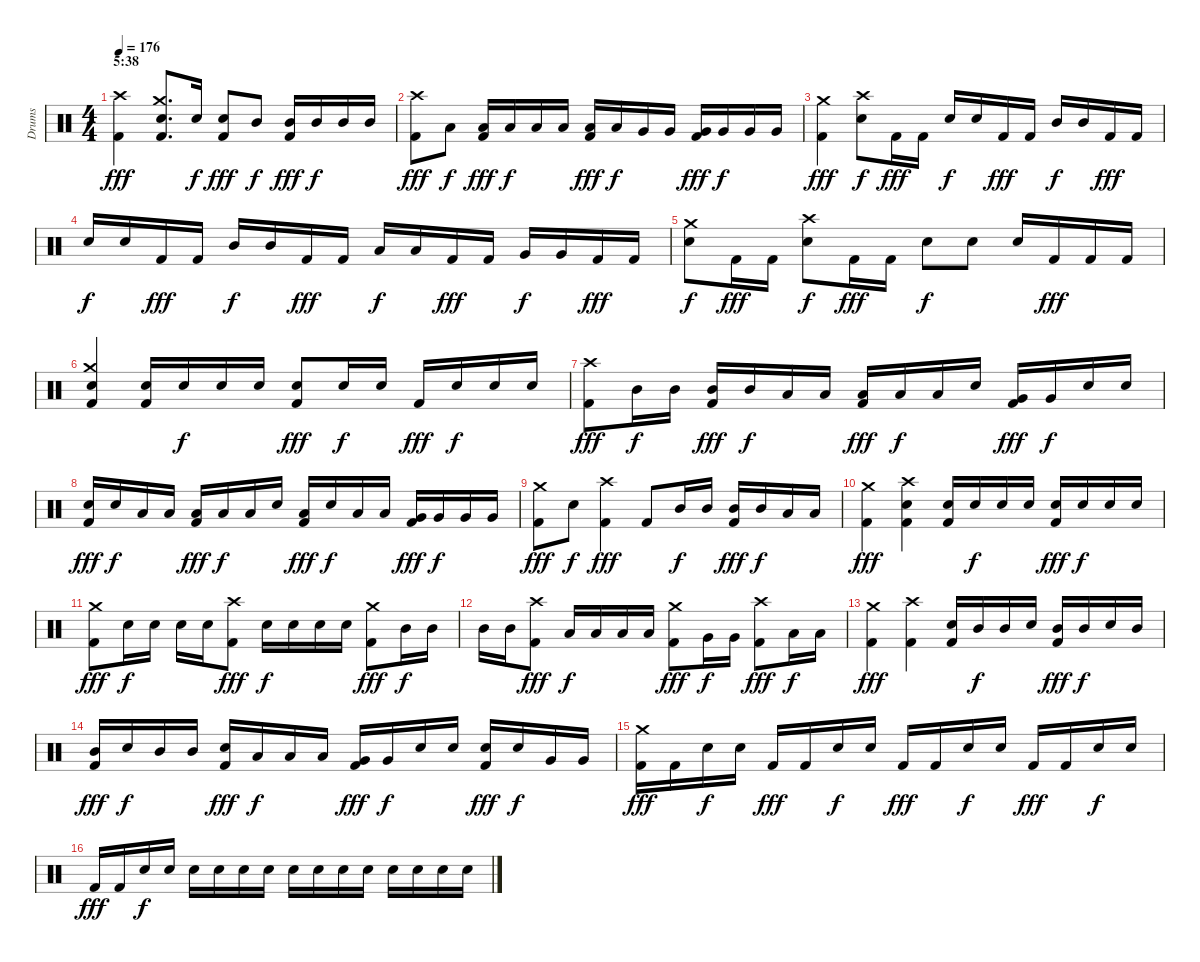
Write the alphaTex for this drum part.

\track ("Drums" "Drums") {instrument percussion}
\staff {score}
\articulation defaults
\ts (4 4)
\section ("" "5:38")
\tempo 176
\clef neutral
\ks c
("Crash high (hit)" "Kick (hit) 2").4{dy fff} ("Crash medium (hit)" "Snare (hit) 2" "Kick (hit) 2").8{d} "Snare (hit) 2".16{dy f} ("Snare (hit) 2" "Kick (hit) 2").8{dy fff} "Mid Tom (hit)".8{dy f} ("Mid Tom (hit)" "Kick (hit) 2").16{dy fff} "Mid Tom (hit)".16{dy f} "Mid Tom (hit)".16 "Mid Tom (hit)".16 |
("Crash high (hit)" "Kick (hit) 2").8{dy fff} "Low Tom (hit)".8{dy f} ("Low Tom (hit)" "Kick (hit) 2").16{dy fff} "Low Tom (hit)".16{dy f} "Low Tom (hit)".16 "Low Tom (hit)".16 ("Low Tom (hit)" "Kick (hit) 2").16{dy fff} "Low Tom (hit)".16{dy f} "Very Low Tom (hit)".16 "Very Low Tom (hit)".16 ("Very Low Tom (hit)" "Kick (hit) 2").16{dy fff} "Very Low Tom (hit)".16{dy f} "Very Low Tom (hit)".16 "Very Low Tom (hit)".16 |
("Crash medium (hit)" "Kick (hit) 2").4{dy fff} ("Crash high (hit)" "Snare (hit) 2").8{dy f} "Kick (hit) 2".16{dy fff} "Kick (hit) 2".16 "Snare (hit) 2".16{dy f} "Snare (hit) 2".16 "Kick (hit) 2".16{dy fff} "Kick (hit) 2".16 "Mid Tom (hit)".16{dy f} "Mid Tom (hit)".16 "Kick (hit) 2".16{dy fff} "Kick (hit) 2".16 |
"Snare (hit) 2".16{dy f} "Snare (hit) 2".16 "Kick (hit) 2".16{dy fff} "Kick (hit) 2".16 "Mid Tom (hit)".16{dy f} "Mid Tom (hit)".16 "Kick (hit) 2".16{dy fff} "Kick (hit) 2".16 "Low Tom (hit)".16{dy f} "Low Tom (hit)".16 "Kick (hit) 2".16{dy fff} "Kick (hit) 2".16 "Very Low Tom (hit)".16{dy f} "Very Low Tom (hit)".16 "Kick (hit) 2".16{dy fff} "Kick (hit) 2".16 |
("Crash medium (hit)" "Snare (hit) 2").8{dy f} "Kick (hit) 2".16{dy fff} "Kick (hit) 2".16 ("Crash high (hit)" "Snare (hit) 2").8{dy f} "Kick (hit) 2".16{dy fff} "Kick (hit) 2".16 "Snare (hit) 2".8{dy f} "Snare (hit) 2".8 "Snare (hit) 2".16 "Kick (hit) 2".16{dy fff} "Kick (hit) 2".16 "Kick (hit) 2".16 |
("Crash medium (hit)" "Snare (hit) 2" "Kick (hit) 2").4 ("Snare (hit) 2" "Kick (hit) 2").16 "Snare (hit) 2".16{dy f} "Snare (hit) 2".16 "Snare (hit) 2".16 ("Snare (hit) 2" "Kick (hit) 2").8{dy fff} "Snare (hit) 2".16{dy f} "Snare (hit) 2".16 "Kick (hit) 2".16{dy fff} "Snare (hit) 2".16{dy f} "Snare (hit) 2".16 "Snare (hit) 2".16 |
("Crash high (hit)" "Kick (hit) 2").8{dy fff} "Mid Tom (hit)".16{dy f} "Mid Tom (hit)".16 ("Mid Tom (hit)" "Kick (hit) 2").16{dy fff} "Mid Tom (hit)".16{dy f} "Low Tom (hit)".16 "Low Tom (hit)".16 ("Low Tom (hit)" "Kick (hit) 2").16{dy fff} "Low Tom (hit)".16{dy f} "Low Tom (hit)".16 "Snare (hit) 2".16 ("Very Low Tom (hit)" "Kick (hit) 2").16{dy fff} "Very Low Tom (hit)".16{dy f} "Snare (hit) 2".16 "Snare (hit) 2".16 |
("Snare (hit) 2" "Kick (hit) 2").16{dy fff} "Snare (hit) 2".16{dy f} "Low Tom (hit)".16 "Low Tom (hit)".16 ("Low Tom (hit)" "Kick (hit) 2").16{dy fff} "Low Tom (hit)".16{dy f} "Low Tom (hit)".16 "Snare (hit) 2".16 ("Low Tom (hit)" "Kick (hit) 2").16{dy fff} "Snare (hit) 2".16{dy f} "Low Tom (hit)".16 "Low Tom (hit)".16 ("Very Low Tom (hit)" "Kick (hit) 2").16{dy fff} "Very Low Tom (hit)".16{dy f} "Very Low Tom (hit)".16 "Very Low Tom (hit)".16 |
("Crash medium (hit)" "Kick (hit) 2").8{dy fff} "Snare (hit) 2".8{dy f} ("Crash high (hit)" "Kick (hit) 2").4{dy fff} "Kick (hit) 2".8 "Mid Tom (hit)".16{dy f} "Mid Tom (hit)".16 ("Mid Tom (hit)" "Kick (hit) 2").16{dy fff} "Mid Tom (hit)".16{dy f} "Low Tom (hit)".16 "Low Tom (hit)".16 |
("Crash medium (hit)" "Kick (hit) 2").4{dy fff} ("Crash high (hit)" "Snare (hit) 2" "Kick (hit) 2").4 ("Snare (hit) 2" "Kick (hit) 2").16 "Snare (hit) 2".16{dy f} "Snare (hit) 2".16 "Snare (hit) 2".16 ("Snare (hit) 2" "Kick (hit) 2").16{dy fff} "Snare (hit) 2".16{dy f} "Snare (hit) 2".16 "Snare (hit) 2".16 |
("Crash medium (hit)" "Kick (hit) 2").8{dy fff} "Snare (hit) 2".16{dy f} "Snare (hit) 2".16 "Snare (hit) 2".16 "Snare (hit) 2".16 ("Crash high (hit)" "Kick (hit) 2").8{dy fff} "Snare (hit) 2".16{dy f} "Snare (hit) 2".16 "Snare (hit) 2".16 "Snare (hit) 2".16 ("Crash medium (hit)" "Kick (hit) 2").8{dy fff} "Mid Tom (hit)".16{dy f} "Mid Tom (hit)".16 |
"Mid Tom (hit)".16 "Mid Tom (hit)".16 ("Crash high (hit)" "Kick (hit) 2").8{dy fff} "Low Tom (hit)".16{dy f} "Low Tom (hit)".16 "Low Tom (hit)".16 "Low Tom (hit)".16 ("Crash medium (hit)" "Kick (hit) 2").8{dy fff} "Very Low Tom (hit)".16{dy f} "Very Low Tom (hit)".16 ("Crash high (hit)" "Kick (hit) 2").8{dy fff} "Low Floor Tom (hit)".16{dy f} "Low Floor Tom (hit)".16 |
("Crash medium (hit)" "Kick (hit) 2").4{dy fff} ("Crash high (hit)" "Kick (hit) 2").4 ("Snare (hit) 2" "Kick (hit) 2").16 "Mid Tom (hit)".16{dy f} "Mid Tom (hit)".16 "Snare (hit) 2".16 ("Mid Tom (hit)" "Kick (hit) 2").16{dy fff} "Mid Tom (hit)".16{dy f} "Snare (hit) 2".16 "Mid Tom (hit)".16 |
("Mid Tom (hit)" "Kick (hit) 2").16{dy fff} "Snare (hit) 2".16{dy f} "Mid Tom (hit)".16 "Mid Tom (hit)".16 ("Snare (hit) 2" "Kick (hit) 2").16{dy fff} "Low Tom (hit)".16{dy f} "Low Tom (hit)".16 "Low Tom (hit)".16 ("Very Low Tom (hit)" "Kick (hit) 2").16{dy fff} "Very Low Tom (hit)".16{dy f} "Snare (hit) 2".16 "Snare (hit) 2".16 ("Snare (hit) 2" "Kick (hit) 2").16{dy fff} "Snare (hit) 2".16{dy f} "Very Low Tom (hit)".16 "Very Low Tom (hit)".16 |
("Crash medium (hit)" "Kick (hit) 2").16{dy fff} "Kick (hit) 2".16 "Snare (hit) 2".16{dy f} "Snare (hit) 2".16 "Kick (hit) 2".16{dy fff} "Kick (hit) 2".16 "Snare (hit) 2".16{dy f} "Snare (hit) 2".16 "Kick (hit) 2".16{dy fff} "Kick (hit) 2".16 "Snare (hit) 2".16{dy f} "Snare (hit) 2".16 "Kick (hit) 2".16{dy fff} "Kick (hit) 2".16 "Snare (hit) 2".16{dy f} "Snare (hit) 2".16 |
"Kick (hit) 2".16{dy fff} "Kick (hit) 2".16 "Snare (hit) 2".16{dy f} "Snare (hit) 2".16 "Snare (hit) 2".16 "Snare (hit) 2".16 "Snare (hit) 2".16 "Snare (hit) 2".16 "Snare (hit) 2".16 "Snare (hit) 2".16 "Snare (hit) 2".16 "Snare (hit) 2".16 "Snare (hit) 2".16 "Snare (hit) 2".16 "Snare (hit) 2".16 "Snare (hit) 2".16
